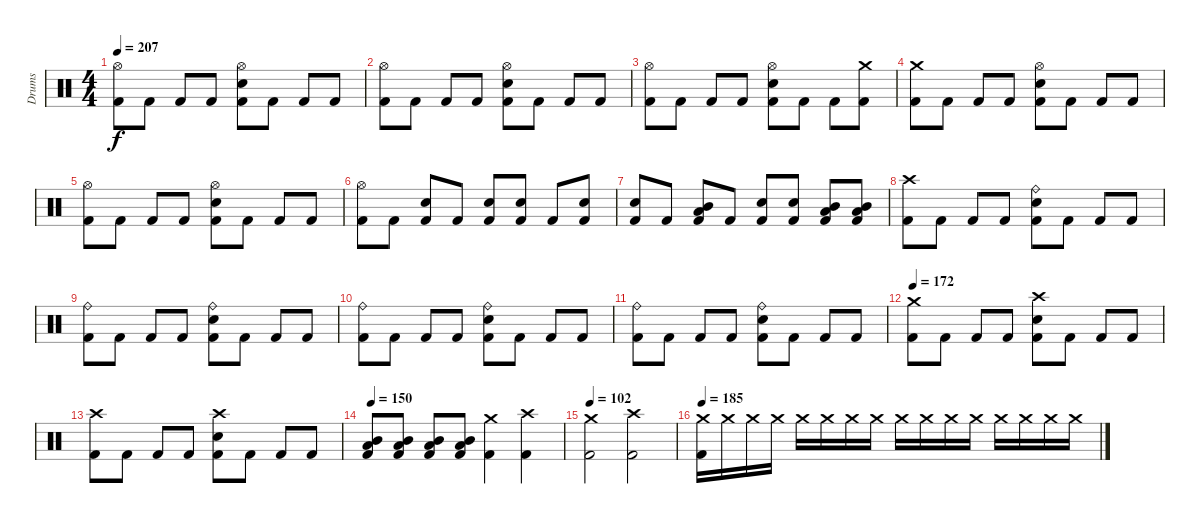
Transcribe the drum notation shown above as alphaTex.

\track ("Drums" "Drums") {instrument percussion}
\staff {score}
\articulation defaults
\ts (4 4)
\tempo 207
\clef neutral
\ks c
("Hi-Hat (open)" "Kick (hit) 2").8{dy f} "Kick (hit) 2".8 "Kick (hit) 2".8 "Kick (hit) 2".8 ("Hi-Hat (open)" "Electric Snare (hit)" "Kick (hit) 2").8 "Kick (hit) 2".8 "Kick (hit) 2".8 "Kick (hit) 2".8 |
("Hi-Hat (open)" "Kick (hit) 2").8 "Kick (hit) 2".8 "Kick (hit) 2".8 "Kick (hit) 2".8 ("Hi-Hat (open)" "Electric Snare (hit)" "Kick (hit) 2").8 "Kick (hit) 2".8 "Kick (hit) 2".8 "Kick (hit) 2".8 |
("Hi-Hat (open)" "Kick (hit) 2").8 "Kick (hit) 2".8 "Kick (hit) 2".8 "Kick (hit) 2".8 ("Hi-Hat (open)" "Electric Snare (hit)" "Kick (hit) 2").8 "Kick (hit) 2".8 "Kick (hit) 2".8 ("Crash medium (hit)" "Kick (hit) 2").8 |
("Crash medium (hit)" "Kick (hit) 2").8 "Kick (hit) 2".8 "Kick (hit) 2".8 "Kick (hit) 2".8 ("Hi-Hat (open)" "Electric Snare (hit)" "Kick (hit) 2").8 "Kick (hit) 2".8 "Kick (hit) 2".8 "Kick (hit) 2".8 |
("Hi-Hat (open)" "Kick (hit) 2").8 "Kick (hit) 2".8 "Kick (hit) 2".8 "Kick (hit) 2".8 ("Hi-Hat (open)" "Electric Snare (hit)" "Kick (hit) 2").8 "Kick (hit) 2".8 "Kick (hit) 2".8 "Kick (hit) 2".8 |
("Hi-Hat (open)" "Kick (hit) 2").8 "Kick (hit) 2".8 ("Electric Snare (hit)" "Kick (hit) 2").8 "Kick (hit) 2".8 ("Electric Snare (hit)" "Kick (hit) 2").8 ("Electric Snare (hit)" "Kick (hit) 2").8 "Kick (hit) 2".8 ("Electric Snare (hit)" "Kick (hit) 2").8 |
("Electric Snare (hit)" "Kick (hit) 2").8 "Kick (hit) 2".8 ("Low Tom (hit)" "Mid Tom (hit)" "Kick (hit) 2").8 "Kick (hit) 2".8 ("Electric Snare (hit)" "Kick (hit) 2").8 ("Electric Snare (hit)" "Kick (hit) 2").8 ("Mid Tom (hit)" "Low Tom (hit)" "Kick (hit) 2").8 ("Mid Tom (hit)" "Low Tom (hit)" "Kick (hit) 2").8 |
("Crash high (hit)" "Kick (hit) 2").8 "Kick (hit) 2".8 "Kick (hit) 2".8 "Kick (hit) 2".8 ("Ride (bell)" "Electric Snare (hit)" "Kick (hit) 2").8 "Kick (hit) 2".8 "Kick (hit) 2".8 "Kick (hit) 2".8 |
("Ride (bell)" "Kick (hit) 2").8 "Kick (hit) 2".8 "Kick (hit) 2".8 "Kick (hit) 2".8 ("Ride (bell)" "Electric Snare (hit)" "Kick (hit) 2").8 "Kick (hit) 2".8 "Kick (hit) 2".8 "Kick (hit) 2".8 |
("Ride (bell)" "Kick (hit) 2").8 "Kick (hit) 2".8 "Kick (hit) 2".8 "Kick (hit) 2".8 ("Ride (bell)" "Electric Snare (hit)" "Kick (hit) 2").8 "Kick (hit) 2".8 "Kick (hit) 2".8 "Kick (hit) 2".8 |
("Ride (bell)" "Kick (hit) 2").8 "Kick (hit) 2".8 "Kick (hit) 2".8 "Kick (hit) 2".8 ("Ride (bell)" "Electric Snare (hit)" "Kick (hit) 2").8 "Kick (hit) 2".8 "Kick (hit) 2".8 "Kick (hit) 2".8 |
\tempo 172
("Crash medium (hit)" "Kick (hit) 2").8 "Kick (hit) 2".8 "Kick (hit) 2".8 "Kick (hit) 2".8 ("Crash high (hit)" "Electric Snare (hit)" "Kick (hit) 2").8 "Kick (hit) 2".8 "Kick (hit) 2".8 "Kick (hit) 2".8 |
("Crash high (hit)" "Kick (hit) 2").8 "Kick (hit) 2".8 "Kick (hit) 2".8 "Kick (hit) 2".8 ("Crash high (hit)" "Electric Snare (hit)" "Kick (hit) 2").8 "Kick (hit) 2".8 "Kick (hit) 2".8 "Kick (hit) 2".8 |
\tempo 150
("Mid Tom (hit)" "Low Tom (hit)" "Kick (hit) 2").8 ("Mid Tom (hit)" "Low Tom (hit)" "Kick (hit) 2").8 ("Mid Tom (hit)" "Low Tom (hit)" "Kick (hit) 2").8 ("Mid Tom (hit)" "Low Tom (hit)" "Kick (hit) 2").8 ("Crash medium (hit)" "Kick (hit) 2").4 ("Crash high (hit)" "Kick (hit) 2").4 |
\tempo 102
("Crash medium (hit)" "Kick (hit) 2").2 ("Crash high (hit)" "Kick (hit) 2").2 |
\tempo 185
("Crash medium (hit)" "Kick (hit) 2").16 "Crash medium (hit)".16 "Crash medium (hit)".16 "Crash medium (hit)".16 "Crash medium (hit)".16 "Crash medium (hit)".16 "Crash medium (hit)".16 "Crash medium (hit)".16 "Crash medium (hit)".16 "Crash medium (hit)".16 "Crash medium (hit)".16 "Crash medium (hit)".16 "Crash medium (hit)".16 "Crash medium (hit)".16 "Crash medium (hit)".16 "Crash medium (hit)".16
